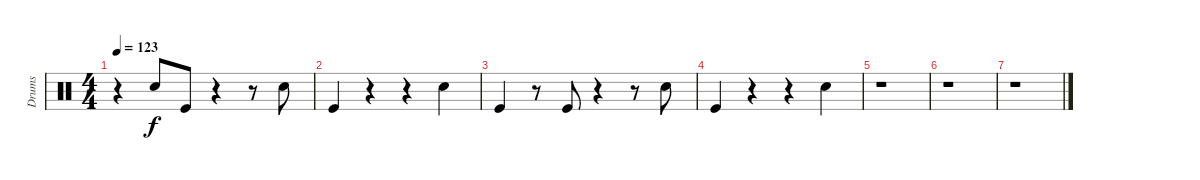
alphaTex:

\track ("Drums" "Drums") {instrument percussion}
\staff {score}
\articulation defaults
\ts (4 4)
\tempo 123
\clef neutral
\ks c
r.4{dy f} "Electric Snare (hit)".8 "Kick (hit)".8 r.4 r.8 "Electric Snare (hit)".8 |
"Kick (hit)".4 r.4 r.4 "Electric Snare (hit)".4 |
"Kick (hit)".4 r.8 "Kick (hit)".8 r.4 r.8 "Electric Snare (hit)".8 |
"Kick (hit)".4 r.4 r.4 "Electric Snare (hit)".4 |
r.1 |
r.1 |
r.1
